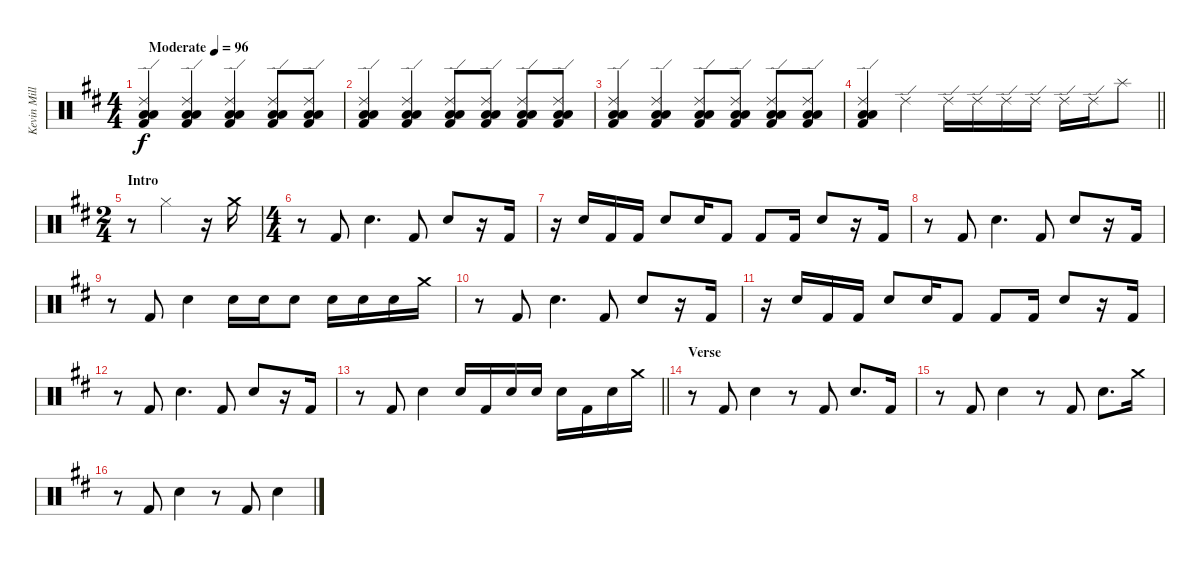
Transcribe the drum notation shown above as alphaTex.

\track ("Kevin Miller (Drums)" "Kevin Mill") {instrument percussion}
\staff {score}
\articulation defaults
\ts (4 4)
\tempo (96 "Moderate")
\clef neutral
\ks d
("Kick (hit) 2" "Low Floor Tom (hit)" "Ride (edge) 2" "Low Tom (hit)").4{dy f} ("Kick (hit) 2" "Low Floor Tom (hit)" "Ride (edge) 2" "Low Tom (hit)").4 ("Kick (hit) 2" "Low Floor Tom (hit)" "Ride (edge) 2" "Low Tom (hit)").4 ("Kick (hit) 2" "Low Floor Tom (hit)" "Ride (edge) 2" "Low Tom (hit)").8 ("Kick (hit) 2" "Low Floor Tom (hit)" "Ride (edge) 2" "Low Tom (hit)").8 |
("Kick (hit) 2" "Low Floor Tom (hit)" "Ride (edge) 2" "Low Tom (hit)").4 ("Kick (hit) 2" "Low Floor Tom (hit)" "Ride (edge) 2" "Low Tom (hit)").4 ("Kick (hit) 2" "Low Floor Tom (hit)" "Ride (edge) 2" "Low Tom (hit)").8 ("Kick (hit) 2" "Low Floor Tom (hit)" "Ride (edge) 2" "Low Tom (hit)").8 ("Kick (hit) 2" "Low Floor Tom (hit)" "Ride (edge) 2" "Low Tom (hit)").8 ("Kick (hit) 2" "Low Floor Tom (hit)" "Ride (edge) 2" "Low Tom (hit)").8 |
("Kick (hit) 2" "Low Floor Tom (hit)" "Ride (edge) 2" "Low Tom (hit)").4 ("Kick (hit) 2" "Low Floor Tom (hit)" "Ride (edge) 2" "Low Tom (hit)").4 ("Kick (hit) 2" "Low Floor Tom (hit)" "Ride (edge) 2" "Low Tom (hit)").8 ("Kick (hit) 2" "Low Floor Tom (hit)" "Ride (edge) 2" "Low Tom (hit)").8 ("Kick (hit) 2" "Low Floor Tom (hit)" "Ride (edge) 2" "Low Tom (hit)").8 ("Kick (hit) 2" "Low Floor Tom (hit)" "Ride (edge) 2" "Low Tom (hit)").8 |
\barLineRight lightlight
("Kick (hit) 2" "Low Floor Tom (hit)" "Ride (edge) 2" "Low Tom (hit)").4 "Ride (edge) 2".4 "Ride (edge) 2".16 "Ride (edge) 2".16 "Ride (edge) 2".16 "Ride (edge) 2".16 "Ride (edge) 2".16 "Ride (edge) 2".16 "Splash (hit)".8 |
\ts (2 4)
\section ("" "Intro")
r.8 "Hi-Hat (closed)".4 r.16 "Crash medium (hit)".16 |
\ts (4 4)
r.8 "Kick (hit) 2".8 "Electric Snare (hit)".4{d} "Kick (hit) 2".8 "Electric Snare (hit)".8 r.16 "Kick (hit) 2".16 |
r.16 "Electric Snare (hit)".16 "Kick (hit) 2".16 "Kick (hit) 2".16 "Electric Snare (hit)".8 "Electric Snare (hit)".16 "Kick (hit) 2".8 "Kick (hit) 2".8 "Kick (hit) 2".16 "Electric Snare (hit)".8 r.16 "Kick (hit) 2".16 |
r.8 "Kick (hit) 2".8 "Electric Snare (hit)".4{d} "Kick (hit) 2".8 "Electric Snare (hit)".8 r.16 "Kick (hit) 2".16 |
r.8 "Kick (hit) 2".8 "Electric Snare (hit)".4 "Electric Snare (hit)".16 "Electric Snare (hit)".16 "Electric Snare (hit)".8 "Electric Snare (hit)".16 "Electric Snare (hit)".16 "Electric Snare (hit)".16 "Crash medium (hit)".16 |
r.8 "Kick (hit) 2".8 "Electric Snare (hit)".4{d} "Kick (hit) 2".8 "Electric Snare (hit)".8 r.16 "Kick (hit) 2".16 |
r.16 "Electric Snare (hit)".16 "Kick (hit) 2".16 "Kick (hit) 2".16 "Electric Snare (hit)".8 "Electric Snare (hit)".16 "Kick (hit) 2".8 "Kick (hit) 2".8 "Kick (hit) 2".16 "Electric Snare (hit)".8 r.16 "Kick (hit) 2".16 |
r.8 "Kick (hit) 2".8 "Electric Snare (hit)".4{d} "Kick (hit) 2".8 "Electric Snare (hit)".8 r.16 "Kick (hit) 2".16 |
\barLineRight lightlight
r.8 "Kick (hit) 2".8 "Electric Snare (hit)".4 "Electric Snare (hit)".16 "Kick (hit) 2".16 "Electric Snare (hit)".16 "Electric Snare (hit)".16 "Electric Snare (hit)".16 "Kick (hit) 2".16 "Electric Snare (hit)".16 "Crash medium (hit)".16 |
\section ("" "Verse")
r.8 "Kick (hit) 2".8 "Electric Snare (hit)".4 r.8 "Kick (hit) 2".8 "Electric Snare (hit)".8{d} "Kick (hit) 2".16 |
r.8 "Kick (hit) 2".8 "Electric Snare (hit)".4 r.8 "Kick (hit) 2".8 "Electric Snare (hit)".8{d} "Crash medium (hit)".16 |
r.8 "Kick (hit) 2".8 "Electric Snare (hit)".4 r.8 "Kick (hit) 2".8 "Electric Snare (hit)".4
